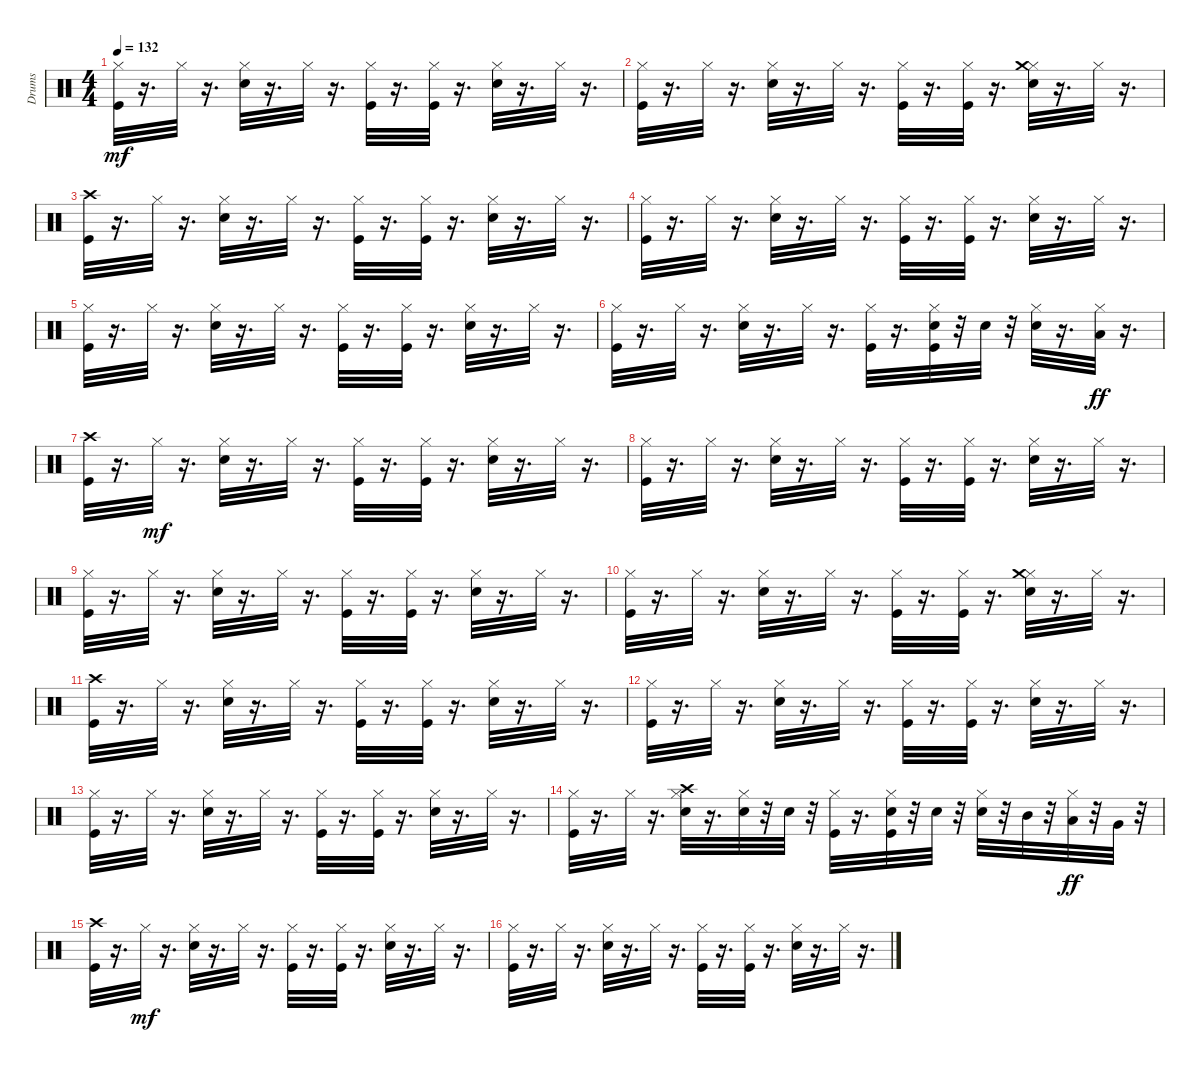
\track ("Drums" "Drums") {instrument percussion}
\staff {score}
\articulation defaults
\ts (4 4)
\tempo 132
\clef neutral
\ks c
("Kick (hit)" "Hi-Hat (closed)").32{dy mf} r.16{d} "Hi-Hat (closed)".32 r.16{d} ("Electric Snare (hit)" "Hi-Hat (closed)").32 r.16{d} "Hi-Hat (closed)".32 r.16{d} ("Kick (hit)" "Hi-Hat (closed)").32 r.16{d} ("Kick (hit)" "Hi-Hat (closed)").32 r.16{d} ("Electric Snare (hit)" "Hi-Hat (closed)").32 r.16{d} "Hi-Hat (closed)".32 r.16{d} |
("Kick (hit)" "Hi-Hat (closed)").32 r.16{d} "Hi-Hat (closed)".32 r.16{d} ("Electric Snare (hit)" "Hi-Hat (closed)").32 r.16{d} "Hi-Hat (closed)".32 r.16{d} ("Kick (hit)" "Hi-Hat (closed)").32 r.16{d} ("Kick (hit)" "Hi-Hat (closed)").32 r.16{d} ("Electric Snare (hit)" "Hi-Hat (closed)" "Crash medium (hit)").32 r.16{d} "Hi-Hat (closed)".32 r.16{d} |
("Kick (hit)" "Crash high (hit)").32 r.16{d} "Hi-Hat (closed)".32 r.16{d} ("Electric Snare (hit)" "Hi-Hat (closed)").32 r.16{d} "Hi-Hat (closed)".32 r.16{d} ("Kick (hit)" "Hi-Hat (closed)").32 r.16{d} ("Kick (hit)" "Hi-Hat (closed)").32 r.16{d} ("Electric Snare (hit)" "Hi-Hat (closed)").32 r.16{d} "Hi-Hat (closed)".32 r.16{d} |
("Kick (hit)" "Hi-Hat (closed)").32 r.16{d} "Hi-Hat (closed)".32 r.16{d} ("Electric Snare (hit)" "Hi-Hat (closed)").32 r.16{d} "Hi-Hat (closed)".32 r.16{d} ("Kick (hit)" "Hi-Hat (closed)").32 r.16{d} ("Kick (hit)" "Hi-Hat (closed)").32 r.16{d} ("Electric Snare (hit)" "Hi-Hat (closed)").32 r.16{d} "Hi-Hat (closed)".32 r.16{d} |
("Kick (hit)" "Hi-Hat (closed)").32 r.16{d} "Hi-Hat (closed)".32 r.16{d} ("Electric Snare (hit)" "Hi-Hat (closed)").32 r.16{d} "Hi-Hat (closed)".32 r.16{d} ("Kick (hit)" "Hi-Hat (closed)").32 r.16{d} ("Kick (hit)" "Hi-Hat (closed)").32 r.16{d} ("Electric Snare (hit)" "Hi-Hat (closed)").32 r.16{d} "Hi-Hat (closed)".32 r.16{d} |
("Kick (hit)" "Hi-Hat (closed)").32 r.16{d} "Hi-Hat (closed)".32 r.16{d} ("Electric Snare (hit)" "Hi-Hat (closed)").32 r.16{d} "Hi-Hat (closed)".32 r.16{d} ("Kick (hit)" "Hi-Hat (closed)").32 r.16{d} ("Kick (hit)" "Electric Snare (hit)" "Hi-Hat (closed)").32 r.32 "Electric Snare (hit)".32 r.32 ("Electric Snare (hit)" "Hi-Hat (closed)").32 r.16{d} ("Hi-Hat (closed)" "Low Tom (hit)").32{dy ff} r.16{d} |
("Kick (hit)" "Crash high (hit)").32 r.16{d} "Hi-Hat (closed)".32{dy mf} r.16{d} ("Electric Snare (hit)" "Hi-Hat (closed)").32 r.16{d} "Hi-Hat (closed)".32 r.16{d} ("Kick (hit)" "Hi-Hat (closed)").32 r.16{d} ("Kick (hit)" "Hi-Hat (closed)").32 r.16{d} ("Electric Snare (hit)" "Hi-Hat (closed)").32 r.16{d} "Hi-Hat (closed)".32 r.16{d} |
("Kick (hit)" "Hi-Hat (closed)").32 r.16{d} "Hi-Hat (closed)".32 r.16{d} ("Electric Snare (hit)" "Hi-Hat (closed)").32 r.16{d} "Hi-Hat (closed)".32 r.16{d} ("Kick (hit)" "Hi-Hat (closed)").32 r.16{d} ("Kick (hit)" "Hi-Hat (closed)").32 r.16{d} ("Electric Snare (hit)" "Hi-Hat (closed)").32 r.16{d} "Hi-Hat (closed)".32 r.16{d} |
("Kick (hit)" "Hi-Hat (closed)").32 r.16{d} "Hi-Hat (closed)".32 r.16{d} ("Electric Snare (hit)" "Hi-Hat (closed)").32 r.16{d} "Hi-Hat (closed)".32 r.16{d} ("Kick (hit)" "Hi-Hat (closed)").32 r.16{d} ("Kick (hit)" "Hi-Hat (closed)").32 r.16{d} ("Electric Snare (hit)" "Hi-Hat (closed)").32 r.16{d} "Hi-Hat (closed)".32 r.16{d} |
("Kick (hit)" "Hi-Hat (closed)").32 r.16{d} "Hi-Hat (closed)".32 r.16{d} ("Electric Snare (hit)" "Hi-Hat (closed)").32 r.16{d} "Hi-Hat (closed)".32 r.16{d} ("Kick (hit)" "Hi-Hat (closed)").32 r.16{d} ("Kick (hit)" "Hi-Hat (closed)").32 r.16{d} ("Electric Snare (hit)" "Hi-Hat (closed)" "Crash medium (hit)").32 r.16{d} "Hi-Hat (closed)".32 r.16{d} |
("Kick (hit)" "Crash high (hit)").32 r.16{d} "Hi-Hat (closed)".32 r.16{d} ("Electric Snare (hit)" "Hi-Hat (closed)").32 r.16{d} "Hi-Hat (closed)".32 r.16{d} ("Kick (hit)" "Hi-Hat (closed)").32 r.16{d} ("Kick (hit)" "Hi-Hat (closed)").32 r.16{d} ("Electric Snare (hit)" "Hi-Hat (closed)").32 r.16{d} "Hi-Hat (closed)".32 r.16{d} |
("Kick (hit)" "Hi-Hat (closed)").32 r.16{d} "Hi-Hat (closed)".32 r.16{d} ("Electric Snare (hit)" "Hi-Hat (closed)").32 r.16{d} "Hi-Hat (closed)".32 r.16{d} ("Kick (hit)" "Hi-Hat (closed)").32 r.16{d} ("Kick (hit)" "Hi-Hat (closed)").32 r.16{d} ("Electric Snare (hit)" "Hi-Hat (closed)").32 r.16{d} "Hi-Hat (closed)".32 r.16{d} |
("Kick (hit)" "Hi-Hat (closed)").32 r.16{d} "Hi-Hat (closed)".32 r.16{d} ("Electric Snare (hit)" "Hi-Hat (closed)").32 r.16{d} "Hi-Hat (closed)".32 r.16{d} ("Kick (hit)" "Hi-Hat (closed)").32 r.16{d} ("Kick (hit)" "Hi-Hat (closed)").32 r.16{d} ("Electric Snare (hit)" "Hi-Hat (closed)").32 r.16{d} "Hi-Hat (closed)".32 r.16{d} |
("Kick (hit)" "Hi-Hat (closed)").32 r.16{d} "Hi-Hat (closed)".32 r.16{d} ("Electric Snare (hit)" "Hi-Hat (closed)" "Crash high (hit)").32 r.16{d} ("Electric Snare (hit)" "Hi-Hat (closed)").32 r.32 "Electric Snare (hit)".32 r.32 ("Kick (hit)" "Hi-Hat (closed)").32 r.16{d} ("Kick (hit)" "Electric Snare (hit)" "Hi-Hat (closed)").32 r.32 "Electric Snare (hit)".32 r.32 ("Electric Snare (hit)" "Hi-Hat (closed)").32 r.32 "Mid Tom (hit)".32 r.32 ("Hi-Hat (closed)" "Low Tom (hit)").32{dy ff} r.32 "Very Low Tom (hit)".32 r.32 |
("Kick (hit)" "Crash high (hit)").32 r.16{d} "Hi-Hat (closed)".32{dy mf} r.16{d} ("Electric Snare (hit)" "Hi-Hat (closed)").32 r.16{d} "Hi-Hat (closed)".32 r.16{d} ("Kick (hit)" "Hi-Hat (closed)").32 r.16{d} ("Kick (hit)" "Hi-Hat (closed)").32 r.16{d} ("Electric Snare (hit)" "Hi-Hat (closed)").32 r.16{d} "Hi-Hat (closed)".32 r.16{d} |
("Kick (hit)" "Hi-Hat (closed)").32 r.16{d} "Hi-Hat (closed)".32 r.16{d} ("Electric Snare (hit)" "Hi-Hat (closed)").32 r.16{d} "Hi-Hat (closed)".32 r.16{d} ("Kick (hit)" "Hi-Hat (closed)").32 r.16{d} ("Kick (hit)" "Hi-Hat (closed)").32 r.16{d} ("Electric Snare (hit)" "Hi-Hat (closed)").32 r.16{d} "Hi-Hat (closed)".32 r.16{d}
